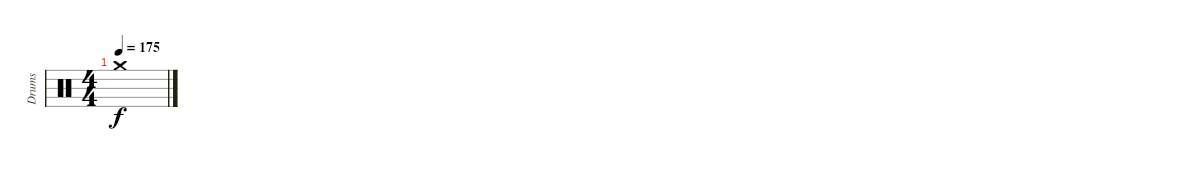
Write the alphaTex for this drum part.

\track ("Drums" "Drums") {instrument percussion}
\staff {score}
\articulation defaults
\ts (4 4)
\tempo 175
\clef neutral
\ks c "Crash medium (hit)".1{dy f}
